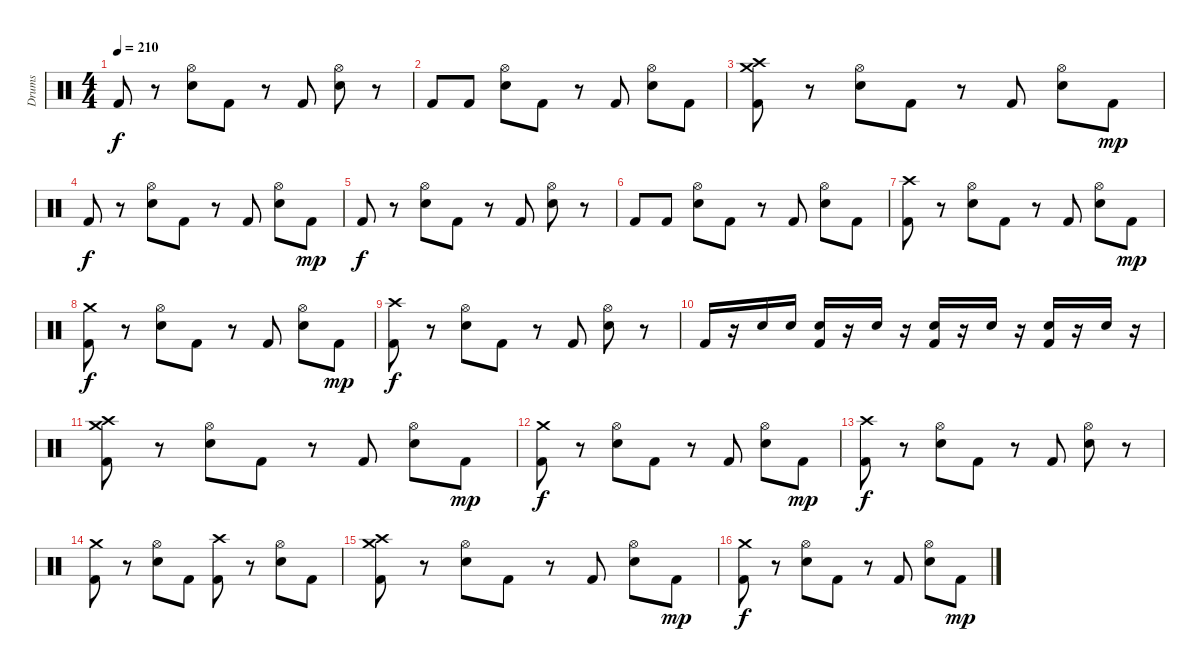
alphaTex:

\track ("Drums" "Drums") {instrument percussion}
\staff {score}
\articulation defaults
\ts (4 4)
\tempo 210
\clef neutral
\ks c "Kick (hit) 2".8{dy f}
r.8 ("Hi-Hat (open)" "Electric Snare (hit)").8 "Kick (hit) 2".8 r.8 "Kick (hit) 2".8 ("Hi-Hat (open)" "Electric Snare (hit)").8 r.8 |
"Kick (hit) 2".8 "Kick (hit) 2".8 ("Hi-Hat (open)" "Electric Snare (hit)").8 "Kick (hit) 2".8 r.8 "Kick (hit) 2".8 ("Hi-Hat (open)" "Electric Snare (hit)").8 "Kick (hit) 2".8 |
("Crash high (hit)" "Crash medium (hit)" "Kick (hit) 2").8 r.8 ("Hi-Hat (open)" "Electric Snare (hit)").8 "Kick (hit) 2".8 r.8 "Kick (hit) 2".8 ("Hi-Hat (open)" "Electric Snare (hit)").8 "Kick (hit) 2".8{dy mp} |
"Kick (hit) 2".8{dy f} r.8 ("Hi-Hat (open)" "Electric Snare (hit)").8 "Kick (hit) 2".8 r.8 "Kick (hit) 2".8 ("Hi-Hat (open)" "Electric Snare (hit)").8 "Kick (hit) 2".8{dy mp} |
"Kick (hit) 2".8{dy f} r.8 ("Hi-Hat (open)" "Electric Snare (hit)").8 "Kick (hit) 2".8 r.8 "Kick (hit) 2".8 ("Hi-Hat (open)" "Electric Snare (hit)").8 r.8 |
"Kick (hit) 2".8 "Kick (hit) 2".8 ("Hi-Hat (open)" "Electric Snare (hit)").8 "Kick (hit) 2".8 r.8 "Kick (hit) 2".8 ("Hi-Hat (open)" "Electric Snare (hit)").8 "Kick (hit) 2".8 |
("Crash high (hit)" "Kick (hit) 2").8 r.8 ("Hi-Hat (open)" "Electric Snare (hit)").8 "Kick (hit) 2".8 r.8 "Kick (hit) 2".8 ("Hi-Hat (open)" "Electric Snare (hit)").8 "Kick (hit) 2".8{dy mp} |
("Crash medium (hit)" "Kick (hit) 2").8{dy f} r.8 ("Hi-Hat (open)" "Electric Snare (hit)").8 "Kick (hit) 2".8 r.8 "Kick (hit) 2".8 ("Hi-Hat (open)" "Electric Snare (hit)").8 "Kick (hit) 2".8{dy mp} |
("Crash high (hit)" "Kick (hit) 2").8{dy f} r.8 ("Hi-Hat (open)" "Electric Snare (hit)").8 "Kick (hit) 2".8 r.8 "Kick (hit) 2".8 ("Hi-Hat (open)" "Electric Snare (hit)").8 r.8 |
"Kick (hit) 2".16 r.16 "Electric Snare (hit)".16 "Electric Snare (hit)".16 ("Kick (hit) 2" "Electric Snare (hit)").16 r.16 "Electric Snare (hit)".16 r.16 ("Kick (hit) 2" "Electric Snare (hit)").16 r.16 "Electric Snare (hit)".16 r.16 ("Kick (hit) 2" "Electric Snare (hit)").16 r.16 "Electric Snare (hit)".16 r.16 |
("Crash high (hit)" "Crash medium (hit)" "Kick (hit) 2").8 r.8 ("Hi-Hat (open)" "Electric Snare (hit)").8 "Kick (hit) 2".8 r.8 "Kick (hit) 2".8 ("Hi-Hat (open)" "Electric Snare (hit)").8 "Kick (hit) 2".8{dy mp} |
("Crash medium (hit)" "Kick (hit) 2").8{dy f} r.8 ("Hi-Hat (open)" "Electric Snare (hit)").8 "Kick (hit) 2".8 r.8 "Kick (hit) 2".8 ("Hi-Hat (open)" "Electric Snare (hit)").8 "Kick (hit) 2".8{dy mp} |
("Crash high (hit)" "Kick (hit) 2").8{dy f} r.8 ("Hi-Hat (open)" "Electric Snare (hit)").8 "Kick (hit) 2".8 r.8 "Kick (hit) 2".8 ("Hi-Hat (open)" "Electric Snare (hit)").8 r.8 |
("Crash medium (hit)" "Kick (hit) 2").8 r.8 ("Hi-Hat (open)" "Electric Snare (hit)").8 "Kick (hit) 2".8 ("Crash high (hit)" "Kick (hit) 2").8 r.8 ("Hi-Hat (open)" "Electric Snare (hit)").8 "Kick (hit) 2".8 |
("Crash high (hit)" "Crash medium (hit)" "Kick (hit) 2").8 r.8 ("Hi-Hat (open)" "Electric Snare (hit)").8 "Kick (hit) 2".8 r.8 "Kick (hit) 2".8 ("Hi-Hat (open)" "Electric Snare (hit)").8 "Kick (hit) 2".8{dy mp} |
("Crash medium (hit)" "Kick (hit) 2").8{dy f} r.8 ("Hi-Hat (open)" "Electric Snare (hit)").8 "Kick (hit) 2".8 r.8 "Kick (hit) 2".8 ("Hi-Hat (open)" "Electric Snare (hit)").8 "Kick (hit) 2".8{dy mp}
